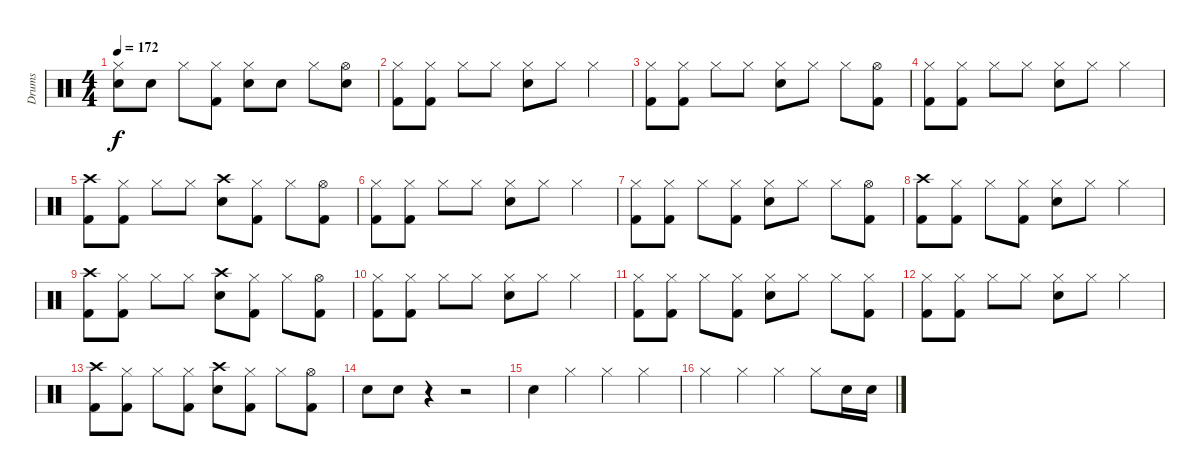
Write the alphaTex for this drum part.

\track ("Drums" "Drums") {instrument percussion}
\staff {score}
\articulation defaults
\ts (4 4)
\tempo 172
\clef neutral
\ks c
("Hi-Hat (closed)" "Electric Snare (hit)").8{dy f} "Electric Snare (hit)".8 "Hi-Hat (closed)".8 ("Hi-Hat (closed)" "Kick (hit) 2").8 ("Hi-Hat (closed)" "Electric Snare (hit)").8 "Electric Snare (hit)".8 "Hi-Hat (closed)".8 ("Hi-Hat (open)" "Electric Snare (hit)").8 |
("Hi-Hat (closed)" "Kick (hit) 2").8 ("Hi-Hat (closed)" "Kick (hit) 2").8 "Hi-Hat (closed)".8 "Hi-Hat (closed)".8 ("Hi-Hat (closed)" "Electric Snare (hit)").8 "Hi-Hat (closed)".8 "Hi-Hat (closed)".4 |
("Hi-Hat (closed)" "Kick (hit) 2").8 ("Hi-Hat (closed)" "Kick (hit) 2").8 "Hi-Hat (closed)".8 "Hi-Hat (closed)".8 ("Hi-Hat (closed)" "Electric Snare (hit)").8 "Hi-Hat (closed)".8 "Hi-Hat (closed)".8 ("Hi-Hat (open)" "Kick (hit) 2").8 |
("Hi-Hat (closed)" "Kick (hit) 2").8 ("Hi-Hat (closed)" "Kick (hit) 2").8 "Hi-Hat (closed)".8 "Hi-Hat (closed)".8 ("Hi-Hat (closed)" "Electric Snare (hit)").8 "Hi-Hat (closed)".8 "Hi-Hat (closed)".4 |
("Crash high (hit)" "Kick (hit) 2").8 ("Hi-Hat (closed)" "Kick (hit) 2").8 "Hi-Hat (closed)".8 "Hi-Hat (closed)".8 ("Crash high (hit)" "Electric Snare (hit)").8 ("Hi-Hat (closed)" "Kick (hit) 2").8 "Hi-Hat (closed)".8 ("Hi-Hat (open)" "Kick (hit) 2").8 |
("Hi-Hat (closed)" "Kick (hit) 2").8 ("Hi-Hat (closed)" "Kick (hit) 2").8 "Hi-Hat (closed)".8 "Hi-Hat (closed)".8 ("Hi-Hat (closed)" "Electric Snare (hit)").8 "Hi-Hat (closed)".8 "Hi-Hat (closed)".4 |
("Hi-Hat (closed)" "Kick (hit) 2").8 ("Hi-Hat (closed)" "Kick (hit) 2").8 "Hi-Hat (closed)".8 ("Hi-Hat (closed)" "Kick (hit) 2").8 ("Hi-Hat (closed)" "Electric Snare (hit)").8 "Hi-Hat (closed)".8 "Hi-Hat (closed)".8 ("Hi-Hat (open)" "Kick (hit) 2").8 |
("Crash high (hit)" "Kick (hit) 2").8 ("Hi-Hat (closed)" "Kick (hit) 2").8 "Hi-Hat (closed)".8 ("Hi-Hat (closed)" "Kick (hit) 2").8 ("Hi-Hat (closed)" "Electric Snare (hit)").8 "Hi-Hat (closed)".8 "Hi-Hat (closed)".4 |
("Crash high (hit)" "Kick (hit) 2").8 ("Hi-Hat (closed)" "Kick (hit) 2").8 "Hi-Hat (closed)".8 "Hi-Hat (closed)".8 ("Crash high (hit)" "Electric Snare (hit)").8 ("Hi-Hat (closed)" "Kick (hit) 2").8 "Hi-Hat (closed)".8 ("Hi-Hat (open)" "Kick (hit) 2").8 |
("Hi-Hat (closed)" "Kick (hit) 2").8 ("Hi-Hat (closed)" "Kick (hit) 2").8 "Hi-Hat (closed)".8 "Hi-Hat (closed)".8 ("Hi-Hat (closed)" "Electric Snare (hit)").8 "Hi-Hat (closed)".8 "Hi-Hat (closed)".4 |
("Hi-Hat (closed)" "Kick (hit) 2").8 ("Hi-Hat (closed)" "Kick (hit) 2").8 "Hi-Hat (closed)".8 ("Hi-Hat (closed)" "Kick (hit) 2").8 ("Hi-Hat (closed)" "Electric Snare (hit)").8 "Hi-Hat (closed)".8 "Hi-Hat (closed)".8 ("Hi-Hat (closed)" "Kick (hit) 2").8 |
("Hi-Hat (closed)" "Kick (hit) 2").8 ("Hi-Hat (closed)" "Kick (hit) 2").8 "Hi-Hat (closed)".8 "Hi-Hat (closed)".8 ("Hi-Hat (closed)" "Electric Snare (hit)").8 "Hi-Hat (closed)".8 "Hi-Hat (closed)".4 |
("Crash high (hit)" "Kick (hit) 2").8 ("Hi-Hat (closed)" "Kick (hit) 2").8 "Hi-Hat (closed)".8 ("Hi-Hat (closed)" "Kick (hit) 2").8 ("Crash high (hit)" "Electric Snare (hit)").8 ("Hi-Hat (closed)" "Kick (hit) 2").8 "Hi-Hat (closed)".8 ("Hi-Hat (open)" "Kick (hit) 2").8 |
"Electric Snare (hit)".8 "Electric Snare (hit)".8 r.4 r.2 |
"Electric Snare (hit)".4 "Hi-Hat (closed)".4 "Hi-Hat (closed)".4 "Hi-Hat (closed)".4 |
"Hi-Hat (closed)".4 "Hi-Hat (closed)".4 "Hi-Hat (closed)".4 "Hi-Hat (closed)".8 "Electric Snare (hit)".16 "Electric Snare (hit)".16
